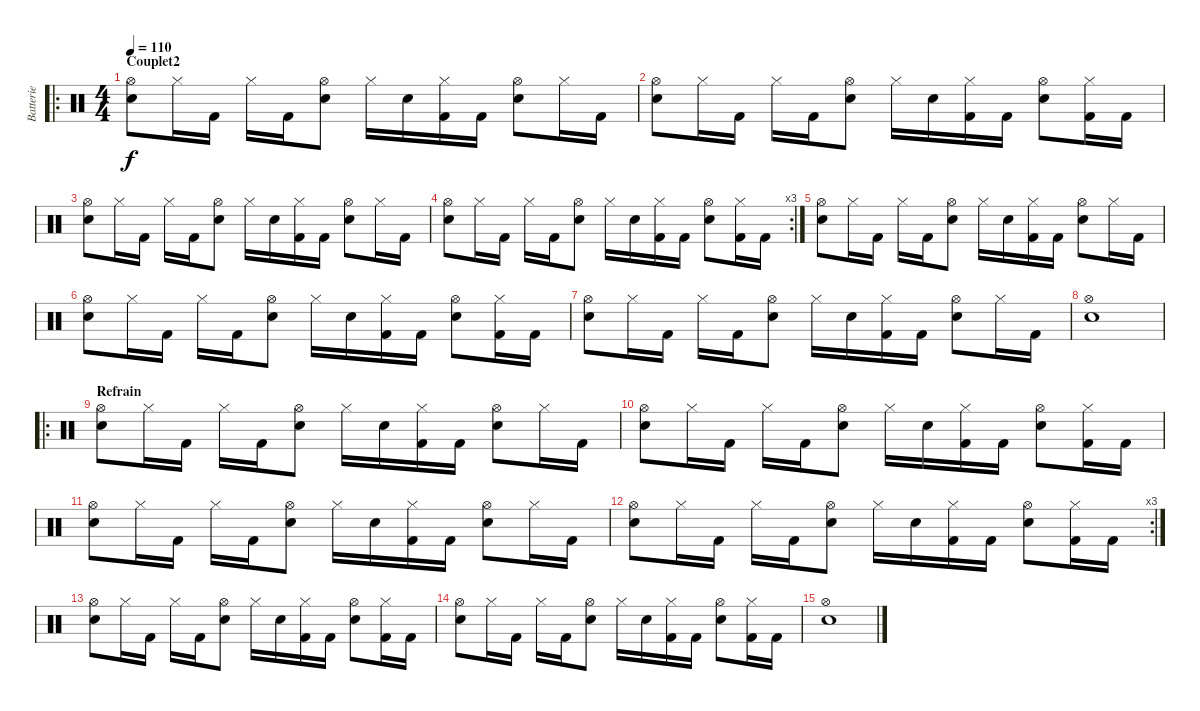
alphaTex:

\track ("Batterie" "Batterie") {instrument percussion}
\staff {score}
\articulation defaults
\ro
\ts (4 4)
\section ("" "Couplet2")
\tempo 110
\clef neutral
\ks c
("Hi-Hat (open)" "Electric Snare (hit)").8{dy f} "Hi-Hat (closed)".16 "Kick (hit) 2".16 "Hi-Hat (closed)".16 "Kick (hit) 2".16 ("Hi-Hat (open)" "Electric Snare (hit)").8 "Hi-Hat (closed)".16 "Electric Snare (hit)".16 ("Kick (hit) 2" "Hi-Hat (closed)").16 "Kick (hit) 2".16 ("Hi-Hat (open)" "Electric Snare (hit)").8 "Hi-Hat (closed)".16 "Kick (hit) 2".16 |
("Hi-Hat (open)" "Electric Snare (hit)").8 "Hi-Hat (closed)".16 "Kick (hit) 2".16 "Hi-Hat (closed)".16 "Kick (hit) 2".16 ("Hi-Hat (open)" "Electric Snare (hit)").8 "Hi-Hat (closed)".16 "Electric Snare (hit)".16 ("Kick (hit) 2" "Hi-Hat (closed)").16 "Kick (hit) 2".16 ("Hi-Hat (open)" "Electric Snare (hit)").8 ("Kick (hit) 2" "Hi-Hat (closed)").16 "Kick (hit) 2".16 |
("Hi-Hat (open)" "Electric Snare (hit)").8 "Hi-Hat (closed)".16 "Kick (hit) 2".16 "Hi-Hat (closed)".16 "Kick (hit) 2".16 ("Hi-Hat (open)" "Electric Snare (hit)").8 "Hi-Hat (closed)".16 "Electric Snare (hit)".16 ("Kick (hit) 2" "Hi-Hat (closed)").16 "Kick (hit) 2".16 ("Hi-Hat (open)" "Electric Snare (hit)").8 "Hi-Hat (closed)".16 "Kick (hit) 2".16 |
\rc 3
("Hi-Hat (open)" "Electric Snare (hit)").8 "Hi-Hat (closed)".16 "Kick (hit) 2".16 "Hi-Hat (closed)".16 "Kick (hit) 2".16 ("Hi-Hat (open)" "Electric Snare (hit)").8 "Hi-Hat (closed)".16 "Electric Snare (hit)".16 ("Kick (hit) 2" "Hi-Hat (closed)").16 "Kick (hit) 2".16 ("Hi-Hat (open)" "Electric Snare (hit)").8 ("Kick (hit) 2" "Hi-Hat (closed)").16 "Kick (hit) 2".16 |
("Hi-Hat (open)" "Electric Snare (hit)").8 "Hi-Hat (closed)".16 "Kick (hit) 2".16 "Hi-Hat (closed)".16 "Kick (hit) 2".16 ("Hi-Hat (open)" "Electric Snare (hit)").8 "Hi-Hat (closed)".16 "Electric Snare (hit)".16 ("Kick (hit) 2" "Hi-Hat (closed)").16 "Kick (hit) 2".16 ("Hi-Hat (open)" "Electric Snare (hit)").8 "Hi-Hat (closed)".16 "Kick (hit) 2".16 |
("Hi-Hat (open)" "Electric Snare (hit)").8 "Hi-Hat (closed)".16 "Kick (hit) 2".16 "Hi-Hat (closed)".16 "Kick (hit) 2".16 ("Hi-Hat (open)" "Electric Snare (hit)").8 "Hi-Hat (closed)".16 "Electric Snare (hit)".16 ("Kick (hit) 2" "Hi-Hat (closed)").16 "Kick (hit) 2".16 ("Hi-Hat (open)" "Electric Snare (hit)").8 ("Kick (hit) 2" "Hi-Hat (closed)").16 "Kick (hit) 2".16 |
("Hi-Hat (open)" "Electric Snare (hit)").8 "Hi-Hat (closed)".16 "Kick (hit) 2".16 "Hi-Hat (closed)".16 "Kick (hit) 2".16 ("Hi-Hat (open)" "Electric Snare (hit)").8 "Hi-Hat (closed)".16 "Electric Snare (hit)".16 ("Kick (hit) 2" "Hi-Hat (closed)").16 "Kick (hit) 2".16 ("Hi-Hat (open)" "Electric Snare (hit)").8 "Hi-Hat (closed)".16 "Kick (hit) 2".16 |
("Hi-Hat (open)" "Electric Snare (hit)").1 |
\ro
\section ("" "Refrain")
("Hi-Hat (open)" "Electric Snare (hit)").8 "Hi-Hat (closed)".16 "Kick (hit) 2".16 "Hi-Hat (closed)".16 "Kick (hit) 2".16 ("Hi-Hat (open)" "Electric Snare (hit)").8 "Hi-Hat (closed)".16 "Electric Snare (hit)".16 ("Kick (hit) 2" "Hi-Hat (closed)").16 "Kick (hit) 2".16 ("Hi-Hat (open)" "Electric Snare (hit)").8 "Hi-Hat (closed)".16 "Kick (hit) 2".16 |
("Hi-Hat (open)" "Electric Snare (hit)").8 "Hi-Hat (closed)".16 "Kick (hit) 2".16 "Hi-Hat (closed)".16 "Kick (hit) 2".16 ("Hi-Hat (open)" "Electric Snare (hit)").8 "Hi-Hat (closed)".16 "Electric Snare (hit)".16 ("Kick (hit) 2" "Hi-Hat (closed)").16 "Kick (hit) 2".16 ("Hi-Hat (open)" "Electric Snare (hit)").8 ("Kick (hit) 2" "Hi-Hat (closed)").16 "Kick (hit) 2".16 |
("Hi-Hat (open)" "Electric Snare (hit)").8 "Hi-Hat (closed)".16 "Kick (hit) 2".16 "Hi-Hat (closed)".16 "Kick (hit) 2".16 ("Hi-Hat (open)" "Electric Snare (hit)").8 "Hi-Hat (closed)".16 "Electric Snare (hit)".16 ("Kick (hit) 2" "Hi-Hat (closed)").16 "Kick (hit) 2".16 ("Hi-Hat (open)" "Electric Snare (hit)").8 "Hi-Hat (closed)".16 "Kick (hit) 2".16 |
\rc 3
("Hi-Hat (open)" "Electric Snare (hit)").8 "Hi-Hat (closed)".16 "Kick (hit) 2".16 "Hi-Hat (closed)".16 "Kick (hit) 2".16 ("Hi-Hat (open)" "Electric Snare (hit)").8 "Hi-Hat (closed)".16 "Electric Snare (hit)".16 ("Kick (hit) 2" "Hi-Hat (closed)").16 "Kick (hit) 2".16 ("Hi-Hat (open)" "Electric Snare (hit)").8 ("Kick (hit) 2" "Hi-Hat (closed)").16 "Kick (hit) 2".16 |
("Hi-Hat (open)" "Electric Snare (hit)").8 "Hi-Hat (closed)".16 "Kick (hit) 2".16 "Hi-Hat (closed)".16 "Kick (hit) 2".16 ("Hi-Hat (open)" "Electric Snare (hit)").8 "Hi-Hat (closed)".16 "Electric Snare (hit)".16 ("Kick (hit) 2" "Hi-Hat (closed)").16 "Kick (hit) 2".16 ("Hi-Hat (open)" "Electric Snare (hit)").8 ("Kick (hit) 2" "Hi-Hat (closed)").16 "Kick (hit) 2".16 |
("Hi-Hat (open)" "Electric Snare (hit)").8 "Hi-Hat (closed)".16 "Kick (hit) 2".16 "Hi-Hat (closed)".16 "Kick (hit) 2".16 ("Hi-Hat (open)" "Electric Snare (hit)").8 "Hi-Hat (closed)".16 "Electric Snare (hit)".16 ("Kick (hit) 2" "Hi-Hat (closed)").16 "Kick (hit) 2".16 ("Hi-Hat (open)" "Electric Snare (hit)").8 ("Kick (hit) 2" "Hi-Hat (closed)").16 "Kick (hit) 2".16 |
("Hi-Hat (open)" "Electric Snare (hit)").1
